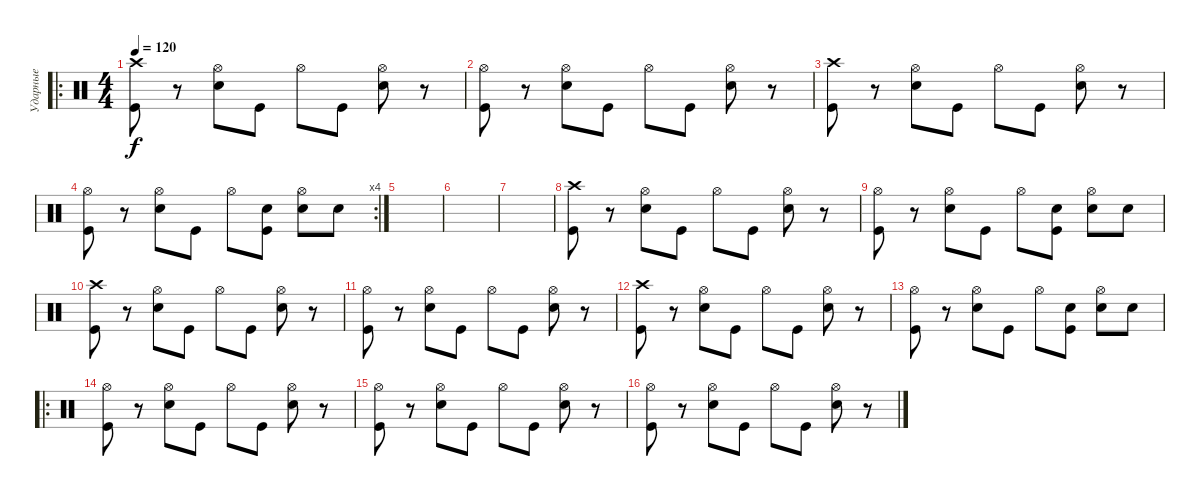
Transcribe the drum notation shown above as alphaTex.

\track ("Ударные" "Ударные") {instrument percussion}
\staff {score}
\articulation defaults
\ro
\ts (4 4)
\tempo 120
\clef neutral
\ks c
("Kick (hit)" "Crash high (hit)").8{dy f} r.8 ("Snare (hit) 2" "Hi-Hat (open)").8 "Kick (hit)".8 "Hi-Hat (open)".8 "Kick (hit)".8 ("Snare (hit) 2" "Hi-Hat (open)").8 r.8 |
("Kick (hit)" "Hi-Hat (open)").8 r.8 ("Snare (hit) 2" "Hi-Hat (open)").8 "Kick (hit)".8 "Hi-Hat (open)".8 "Kick (hit)".8 ("Snare (hit) 2" "Hi-Hat (open)").8 r.8 |
("Kick (hit)" "Crash high (hit)").8 r.8 ("Snare (hit) 2" "Hi-Hat (open)").8 "Kick (hit)".8 "Hi-Hat (open)".8 "Kick (hit)".8 ("Snare (hit) 2" "Hi-Hat (open)").8 r.8 |
\rc 4
("Kick (hit)" "Hi-Hat (open)").8 r.8 ("Snare (hit) 2" "Hi-Hat (open)").8 "Kick (hit)".8 "Hi-Hat (open)".8 ("Kick (hit)" "Snare (hit) 2").8 ("Snare (hit) 2" "Hi-Hat (open)").8 "Snare (hit) 2".8 |
|
|
|
("Kick (hit)" "Crash high (hit)").8 r.8 ("Snare (hit) 2" "Hi-Hat (open)").8 "Kick (hit)".8 "Hi-Hat (open)".8 "Kick (hit)".8 ("Snare (hit) 2" "Hi-Hat (open)").8 r.8 |
("Kick (hit)" "Hi-Hat (open)").8 r.8 ("Snare (hit) 2" "Hi-Hat (open)").8 "Kick (hit)".8 "Hi-Hat (open)".8 ("Kick (hit)" "Snare (hit) 2").8 ("Snare (hit) 2" "Hi-Hat (open)").8 "Snare (hit) 2".8 |
("Kick (hit)" "Crash high (hit)").8 r.8 ("Snare (hit) 2" "Hi-Hat (open)").8 "Kick (hit)".8 "Hi-Hat (open)".8 "Kick (hit)".8 ("Snare (hit) 2" "Hi-Hat (open)").8 r.8 |
("Kick (hit)" "Hi-Hat (open)").8 r.8 ("Snare (hit) 2" "Hi-Hat (open)").8 "Kick (hit)".8 "Hi-Hat (open)".8 "Kick (hit)".8 ("Snare (hit) 2" "Hi-Hat (open)").8 r.8 |
("Kick (hit)" "Crash high (hit)").8 r.8 ("Snare (hit) 2" "Hi-Hat (open)").8 "Kick (hit)".8 "Hi-Hat (open)".8 "Kick (hit)".8 ("Snare (hit) 2" "Hi-Hat (open)").8 r.8 |
("Kick (hit)" "Hi-Hat (open)").8 r.8 ("Snare (hit) 2" "Hi-Hat (open)").8 "Kick (hit)".8 "Hi-Hat (open)".8 ("Kick (hit)" "Snare (hit) 2").8 ("Snare (hit) 2" "Hi-Hat (open)").8 "Snare (hit) 2".8 |
\ro
("Kick (hit)" "Hi-Hat (open)").8 r.8 ("Snare (hit) 2" "Hi-Hat (open)").8 "Kick (hit)".8 "Hi-Hat (open)".8 "Kick (hit)".8 ("Snare (hit) 2" "Hi-Hat (open)").8 r.8 |
("Kick (hit)" "Hi-Hat (open)").8 r.8 ("Snare (hit) 2" "Hi-Hat (open)").8 "Kick (hit)".8 "Hi-Hat (open)".8 "Kick (hit)".8 ("Snare (hit) 2" "Hi-Hat (open)").8 r.8 |
("Kick (hit)" "Hi-Hat (open)").8 r.8 ("Snare (hit) 2" "Hi-Hat (open)").8 "Kick (hit)".8 "Hi-Hat (open)".8 "Kick (hit)".8 ("Snare (hit) 2" "Hi-Hat (open)").8 r.8
